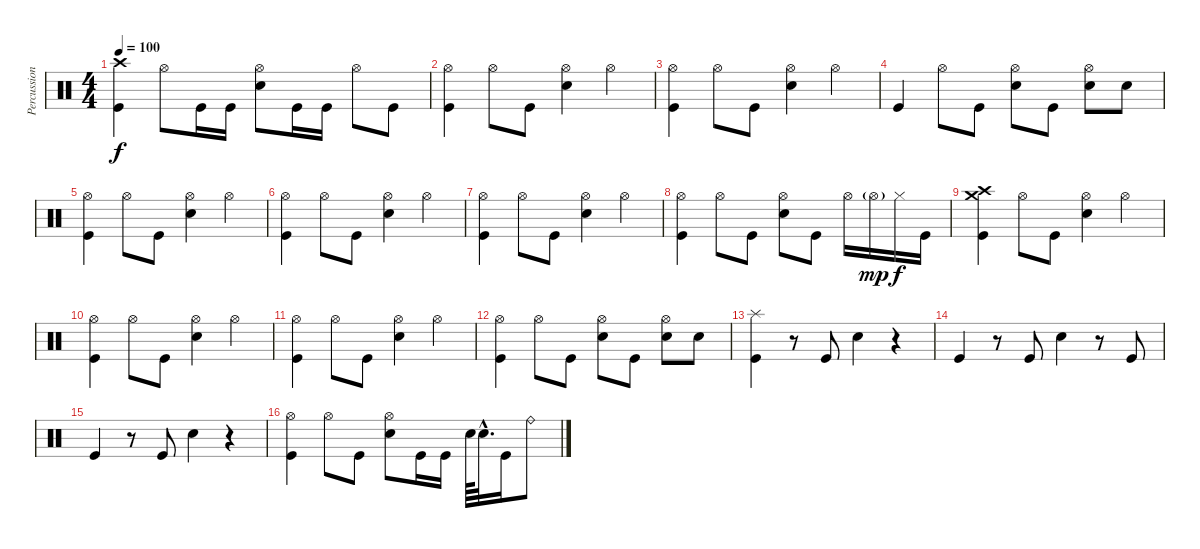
\track ("Percussion" "Percussion") {instrument percussion}
\staff {score}
\articulation defaults
\ts (4 4)
\tempo 100
\clef neutral
\ks c
("Crash high (hit)" "Kick (hit)").4{dy f} "Hi-Hat (open)".8 "Kick (hit)".16 "Kick (hit)".16 ("Hi-Hat (open)" "Snare (hit) 2").8 "Kick (hit)".16 "Kick (hit)".16 "Hi-Hat (open)".8 "Kick (hit)".8 |
("Hi-Hat (open)" "Kick (hit)").4 "Hi-Hat (open)".8 "Kick (hit)".8 ("Hi-Hat (open)" "Snare (hit) 2").4 "Hi-Hat (open)".4 |
("Hi-Hat (open)" "Kick (hit)").4 "Hi-Hat (open)".8 "Kick (hit)".8 ("Hi-Hat (open)" "Snare (hit) 2").4 "Hi-Hat (open)".4 |
"Kick (hit)".4 "Hi-Hat (open)".8 "Kick (hit)".8 ("Hi-Hat (open)" "Snare (hit) 2").8 "Kick (hit)".8 ("Hi-Hat (open)" "Snare (hit) 2").8 "Snare (hit) 2".8 |
("Hi-Hat (open)" "Kick (hit)").4 "Hi-Hat (open)".8 "Kick (hit)".8 ("Hi-Hat (open)" "Snare (hit) 2").4 "Hi-Hat (open)".4 |
("Hi-Hat (open)" "Kick (hit)").4 "Hi-Hat (open)".8 "Kick (hit)".8 ("Hi-Hat (open)" "Snare (hit) 2").4 "Hi-Hat (open)".4 |
("Hi-Hat (open)" "Kick (hit)").4 "Hi-Hat (open)".8 "Kick (hit)".8 ("Hi-Hat (open)" "Snare (hit) 2").4 "Hi-Hat (open)".4 |
("Hi-Hat (open)" "Kick (hit)").4 "Hi-Hat (open)".8 "Kick (hit)".8 ("Hi-Hat (open)" "Snare (hit) 2").8 "Kick (hit)".8 "Hi-Hat (open)".16 "Hi-Hat (open)"{g}.16{dy mp} "Hi-Hat (closed)".16{dy f} "Kick (hit)".16 |
("Crash high (hit)" "Crash medium (hit)" "Kick (hit)").4 "Hi-Hat (open)".8 "Kick (hit)".8 ("Hi-Hat (open)" "Snare (hit) 2").4 "Hi-Hat (open)".4 |
("Hi-Hat (open)" "Kick (hit)").4 "Hi-Hat (open)".8 "Kick (hit)".8 ("Hi-Hat (open)" "Snare (hit) 2").4 "Hi-Hat (open)".4 |
("Hi-Hat (open)" "Kick (hit)").4 "Hi-Hat (open)".8 "Kick (hit)".8 ("Hi-Hat (open)" "Snare (hit) 2").4 "Hi-Hat (open)".4 |
("Hi-Hat (open)" "Kick (hit)").4 "Hi-Hat (open)".8 "Kick (hit)".8 ("Hi-Hat (open)" "Snare (hit) 2").8 "Kick (hit)".8 ("Hi-Hat (open)" "Snare (hit) 2").8 "Snare (hit) 2".8 |
("Splash (hit)" "Kick (hit)").4 r.8 "Kick (hit)".8 "Snare (hit) 2".4 r.4 |
"Kick (hit)".4 r.8 "Kick (hit)".8 "Snare (hit) 2".4 r.8 "Kick (hit)".8 |
"Kick (hit)".4 r.8 "Kick (hit)".8 "Snare (hit) 2".4 r.4 |
("Hi-Hat (open)" "Kick (hit)").4 "Hi-Hat (open)".8 "Kick (hit)".8 ("Hi-Hat (open)" "Snare (hit) 2").8 "Kick (hit)".16 "Kick (hit)".16 "Snare (hit) 2".64 "Snare (hit) 2"{hac}.32{d} "Kick (hit)".16 "Ride (bell)".8
